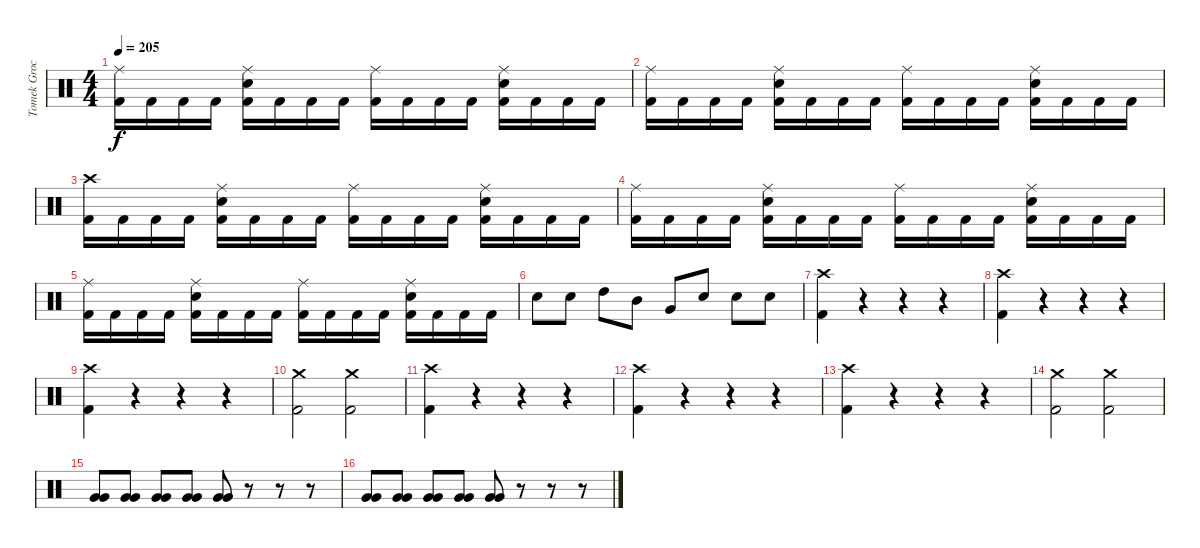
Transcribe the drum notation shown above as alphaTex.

\track ("Tomek Grochowski" "Tomek Groc") {instrument percussion}
\staff {score}
\articulation defaults
\ts (4 4)
\tempo 205
\clef neutral
\ks c
("Ride (middle)" "Kick (hit) 2").16{dy f} "Kick (hit) 2".16 "Kick (hit) 2".16 "Kick (hit) 2".16 ("Ride (middle)" "Electric Snare (hit)" "Kick (hit) 2").16 "Kick (hit) 2".16 "Kick (hit) 2".16 "Kick (hit) 2".16 ("Ride (middle)" "Kick (hit) 2").16 "Kick (hit) 2".16 "Kick (hit) 2".16 "Kick (hit) 2".16 ("Ride (middle)" "Electric Snare (hit)" "Kick (hit) 2").16 "Kick (hit) 2".16 "Kick (hit) 2".16 "Kick (hit) 2".16 |
("Ride (middle)" "Kick (hit) 2").16 "Kick (hit) 2".16 "Kick (hit) 2".16 "Kick (hit) 2".16 ("Ride (middle)" "Electric Snare (hit)" "Kick (hit) 2").16 "Kick (hit) 2".16 "Kick (hit) 2".16 "Kick (hit) 2".16 ("Ride (middle)" "Kick (hit) 2").16 "Kick (hit) 2".16 "Kick (hit) 2".16 "Kick (hit) 2".16 ("Ride (middle)" "Electric Snare (hit)" "Kick (hit) 2").16 "Kick (hit) 2".16 "Kick (hit) 2".16 "Kick (hit) 2".16 |
("Crash high (hit)" "Kick (hit) 2").16 "Kick (hit) 2".16 "Kick (hit) 2".16 "Kick (hit) 2".16 ("Ride (middle)" "Electric Snare (hit)" "Kick (hit) 2").16 "Kick (hit) 2".16 "Kick (hit) 2".16 "Kick (hit) 2".16 ("Ride (middle)" "Kick (hit) 2").16 "Kick (hit) 2".16 "Kick (hit) 2".16 "Kick (hit) 2".16 ("Ride (middle)" "Electric Snare (hit)" "Kick (hit) 2").16 "Kick (hit) 2".16 "Kick (hit) 2".16 "Kick (hit) 2".16 |
("Ride (middle)" "Kick (hit) 2").16 "Kick (hit) 2".16 "Kick (hit) 2".16 "Kick (hit) 2".16 ("Ride (middle)" "Electric Snare (hit)" "Kick (hit) 2").16 "Kick (hit) 2".16 "Kick (hit) 2".16 "Kick (hit) 2".16 ("Ride (middle)" "Kick (hit) 2").16 "Kick (hit) 2".16 "Kick (hit) 2".16 "Kick (hit) 2".16 ("Ride (middle)" "Electric Snare (hit)" "Kick (hit) 2").16 "Kick (hit) 2".16 "Kick (hit) 2".16 "Kick (hit) 2".16 |
("Ride (middle)" "Kick (hit) 2").16 "Kick (hit) 2".16 "Kick (hit) 2".16 "Kick (hit) 2".16 ("Ride (middle)" "Electric Snare (hit)" "Kick (hit) 2").16 "Kick (hit) 2".16 "Kick (hit) 2".16 "Kick (hit) 2".16 ("Ride (middle)" "Kick (hit) 2").16 "Kick (hit) 2".16 "Kick (hit) 2".16 "Kick (hit) 2".16 ("Ride (middle)" "Electric Snare (hit)" "Kick (hit) 2").16 "Kick (hit) 2".16 "Kick (hit) 2".16 "Kick (hit) 2".16 |
"Electric Snare (hit)".8 "Electric Snare (hit)".8 "High Tom (hit)".8 "Mid Tom (hit)".8 "Very Low Tom (hit)".8 "Electric Snare (hit)".8 "Electric Snare (hit)".8 "Electric Snare (hit)".8 |
("Crash high (hit)" "Kick (hit) 2").4 r.4 r.4 r.4 |
("Crash high (hit)" "Kick (hit) 2").4 r.4 r.4 r.4 |
("Crash high (hit)" "Kick (hit) 2").4 r.4 r.4 r.4 |
("Crash medium (hit)" "Kick (hit) 2").2 ("Crash medium (hit)" "Kick (hit) 2").2 |
("Crash high (hit)" "Kick (hit) 2").4 r.4 r.4 r.4 |
("Crash high (hit)" "Kick (hit) 2").4 r.4 r.4 r.4 |
("Crash high (hit)" "Kick (hit) 2").4 r.4 r.4 r.4 |
("Crash medium (hit)" "Kick (hit) 2").2 ("Crash medium (hit)" "Kick (hit) 2").2 |
("Very Low Tom (hit)" "Very Low Tom (hit)").8 ("Very Low Tom (hit)" "Very Low Tom (hit)").8 ("Very Low Tom (hit)" "Very Low Tom (hit)").8 ("Very Low Tom (hit)" "Very Low Tom (hit)").8 ("Very Low Tom (hit)" "Very Low Tom (hit)").8 r.8 r.8 r.8 |
("Very Low Tom (hit)" "Very Low Tom (hit)").8 ("Very Low Tom (hit)" "Very Low Tom (hit)").8 ("Very Low Tom (hit)" "Very Low Tom (hit)").8 ("Very Low Tom (hit)" "Very Low Tom (hit)").8 ("Very Low Tom (hit)" "Very Low Tom (hit)").8 r.8 r.8 r.8
